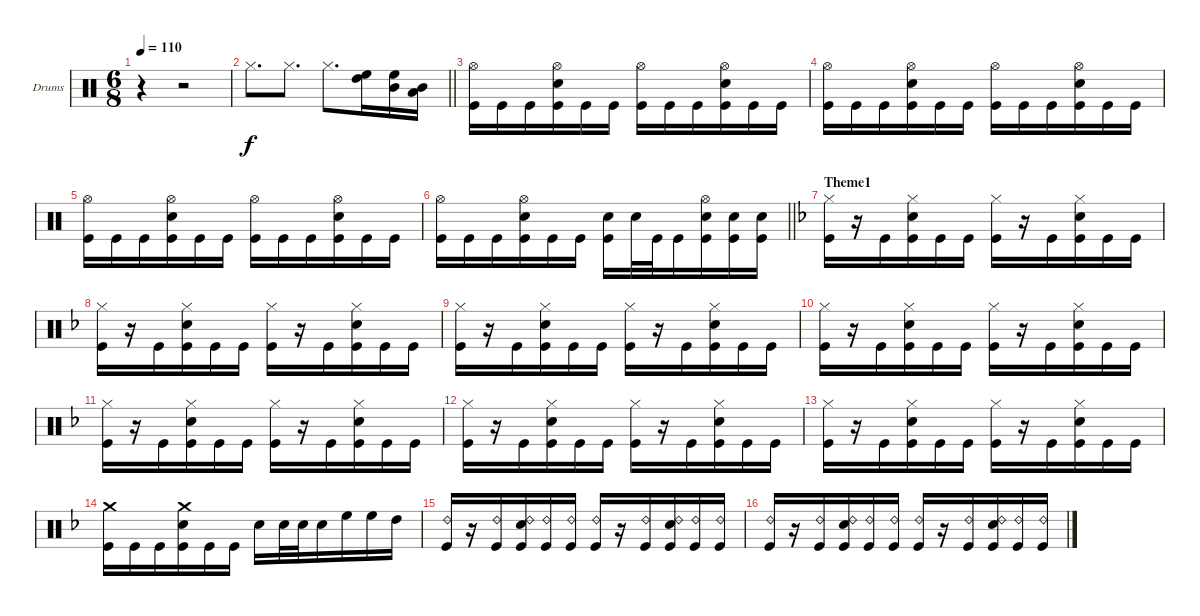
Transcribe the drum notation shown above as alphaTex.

\bracketExtendMode groupsimilarinstruments
\firstSystemTrackNameOrientation horizontal
\otherSystemsTrackNameOrientation horizontal
\track ("Drumkit" "Drums") {instrument percussion}
\staff {score}
\articulation defaults
\ts (6 8)
\tempo 110
\clef neutral
\ks c
r.4{dy f} r.2 |
\barLineRight lightlight "Hi-Hat (closed)".8{d} "Hi-Hat (closed)".8{d} "Hi-Hat (closed)".8{d}
("High Floor Tom (hit)" "High Tom (hit)").16 ("High Floor Tom (hit)" "Mid Tom (hit)").16 ("Mid Tom (hit)" "Low Tom (hit)").16 |
("Hi-Hat (open)" "Kick (hit)").16 "Kick (hit)".16 "Kick (hit)".16 ("Hi-Hat (open)" "Snare (hit) 2" "Kick (hit)").16 "Kick (hit)".16 "Kick (hit)".16 ("Hi-Hat (open)" "Kick (hit)").16 "Kick (hit)".16 "Kick (hit)".16 ("Hi-Hat (open)" "Snare (hit) 2" "Kick (hit)").16 "Kick (hit)".16 "Kick (hit)".16 |
("Hi-Hat (open)" "Kick (hit)").16 "Kick (hit)".16 "Kick (hit)".16 ("Hi-Hat (open)" "Snare (hit) 2" "Kick (hit)").16 "Kick (hit)".16 "Kick (hit)".16 ("Hi-Hat (open)" "Kick (hit)").16 "Kick (hit)".16 "Kick (hit)".16 ("Hi-Hat (open)" "Snare (hit) 2" "Kick (hit)").16 "Kick (hit)".16 "Kick (hit)".16 |
("Hi-Hat (open)" "Kick (hit)").16 "Kick (hit)".16 "Kick (hit)".16 ("Hi-Hat (open)" "Snare (hit) 2" "Kick (hit)").16 "Kick (hit)".16 "Kick (hit)".16 ("Hi-Hat (open)" "Kick (hit)").16 "Kick (hit)".16 "Kick (hit)".16 ("Hi-Hat (open)" "Snare (hit) 2" "Kick (hit)").16 "Kick (hit)".16 "Kick (hit)".16 |
\barLineRight lightlight
("Hi-Hat (open)" "Kick (hit)").16 "Kick (hit)".16 "Kick (hit)".16 ("Hi-Hat (open)" "Snare (hit) 2" "Kick (hit)").16 "Kick (hit)".16 "Kick (hit)".16 ("Snare (hit) 2" "Kick (hit)").16 "Snare (hit) 2".32 "Kick (hit)".32 "Kick (hit)".16 ("Hi-Hat (open)" "Snare (hit) 2" "Kick (hit)").16 ("Snare (hit) 2" "Kick (hit)").16 ("Snare (hit) 2" "Kick (hit)").16 |
\section ("" "Theme1")
\ks f
("Kick (hit)" "Hi-Hat (closed)").16 r.16 "Kick (hit)".16 ("Kick (hit)" "Snare (hit) 2" "Hi-Hat (closed)").16 "Kick (hit)".16 "Kick (hit)".16 ("Kick (hit)" "Hi-Hat (closed)").16 r.16 "Kick (hit)".16 ("Kick (hit)" "Snare (hit) 2" "Hi-Hat (closed)").16 "Kick (hit)".16 "Kick (hit)".16 |
("Kick (hit)" "Hi-Hat (closed)").16 r.16 "Kick (hit)".16 ("Kick (hit)" "Snare (hit) 2" "Hi-Hat (closed)").16 "Kick (hit)".16 "Kick (hit)".16 ("Kick (hit)" "Hi-Hat (closed)").16 r.16 "Kick (hit)".16 ("Kick (hit)" "Snare (hit) 2" "Hi-Hat (closed)").16 "Kick (hit)".16 "Kick (hit)".16 |
("Kick (hit)" "Hi-Hat (closed)").16 r.16 "Kick (hit)".16 ("Kick (hit)" "Snare (hit) 2" "Hi-Hat (closed)").16 "Kick (hit)".16 "Kick (hit)".16 ("Kick (hit)" "Hi-Hat (closed)").16 r.16 "Kick (hit)".16 ("Kick (hit)" "Snare (hit) 2" "Hi-Hat (closed)").16 "Kick (hit)".16 "Kick (hit)".16 |
("Kick (hit)" "Hi-Hat (closed)").16 r.16 "Kick (hit)".16 ("Kick (hit)" "Snare (hit) 2" "Hi-Hat (closed)").16 "Kick (hit)".16 "Kick (hit)".16 ("Kick (hit)" "Hi-Hat (closed)").16 r.16 "Kick (hit)".16 ("Kick (hit)" "Snare (hit) 2" "Hi-Hat (closed)").16 "Kick (hit)".16 "Kick (hit)".16 |
("Kick (hit)" "Hi-Hat (closed)").16 r.16 "Kick (hit)".16 ("Kick (hit)" "Snare (hit) 2" "Hi-Hat (closed)").16 "Kick (hit)".16 "Kick (hit)".16 ("Kick (hit)" "Hi-Hat (closed)").16 r.16 "Kick (hit)".16 ("Kick (hit)" "Snare (hit) 2" "Hi-Hat (closed)").16 "Kick (hit)".16 "Kick (hit)".16 |
("Kick (hit)" "Hi-Hat (closed)").16 r.16 "Kick (hit)".16 ("Kick (hit)" "Snare (hit) 2" "Hi-Hat (closed)").16 "Kick (hit)".16 "Kick (hit)".16 ("Kick (hit)" "Hi-Hat (closed)").16 r.16 "Kick (hit)".16 ("Kick (hit)" "Snare (hit) 2" "Hi-Hat (closed)").16 "Kick (hit)".16 "Kick (hit)".16 |
("Kick (hit)" "Hi-Hat (closed)").16 r.16 "Kick (hit)".16 ("Kick (hit)" "Snare (hit) 2" "Hi-Hat (closed)").16 "Kick (hit)".16 "Kick (hit)".16 ("Kick (hit)" "Hi-Hat (closed)").16 r.16 "Kick (hit)".16 ("Kick (hit)" "Snare (hit) 2" "Hi-Hat (closed)").16 "Kick (hit)".16 "Kick (hit)".16 |
("Kick (hit)" "Crash medium (hit)").16 "Kick (hit)".16 "Kick (hit)".16 ("Kick (hit)" "Snare (hit) 2" "Crash medium (hit)").16 "Kick (hit)".16 "Kick (hit)".16 "Snare (hit) 2".16 "Snare (hit) 2".32 "Snare (hit) 2".32 "Snare (hit) 2".16 "High Floor Tom (hit)".16 "High Floor Tom (hit)".16 "High Tom (hit)".16 |
("Kick (hit)" "Ride (bell) 2").16 r.16 ("Kick (hit)" "Ride (bell) 2").16 ("Kick (hit)" "Snare (hit) 2" "Ride (bell) 2").16 ("Kick (hit)" "Ride (bell) 2").16 ("Kick (hit)" "Ride (bell) 2").16 ("Kick (hit)" "Ride (bell) 2").16 r.16 ("Kick (hit)" "Ride (bell) 2").16 ("Kick (hit)" "Snare (hit) 2" "Ride (bell) 2").16 ("Kick (hit)" "Ride (bell) 2").16 ("Kick (hit)" "Ride (bell) 2").16 |
("Kick (hit)" "Ride (bell) 2").16 r.16 ("Kick (hit)" "Ride (bell) 2").16 ("Kick (hit)" "Snare (hit) 2" "Ride (bell) 2").16 ("Kick (hit)" "Ride (bell) 2").16 ("Kick (hit)" "Ride (bell) 2").16 ("Kick (hit)" "Ride (bell) 2").16 r.16 ("Kick (hit)" "Ride (bell) 2").16 ("Kick (hit)" "Snare (hit) 2" "Ride (bell) 2").16 ("Kick (hit)" "Ride (bell) 2").16 ("Kick (hit)" "Ride (bell) 2").16
